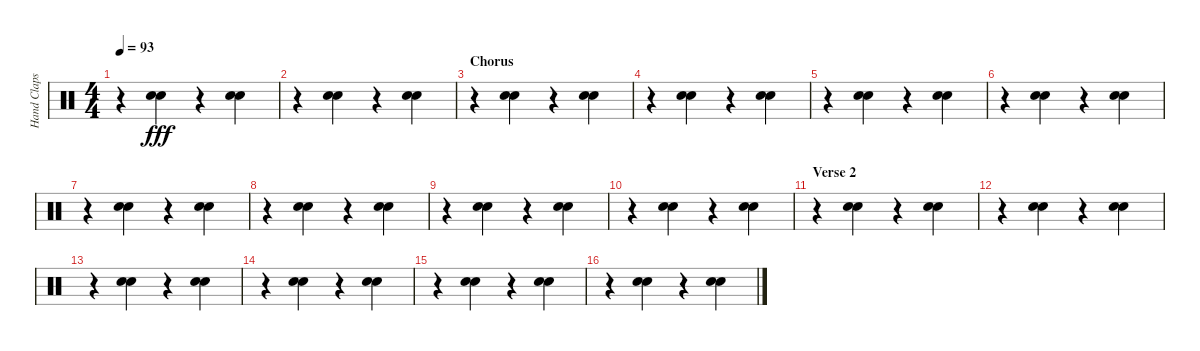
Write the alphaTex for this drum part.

\track ("Hand Claps" "Hand Claps") {instrument percussion}
\staff {score}
\articulation defaults
\ts (4 4)
\tempo 93
\clef neutral
\ks c
r.4{dy fff} ("Hand Clap (hit)" "Hand Clap (hit)").4 r.4 ("Hand Clap (hit)" "Hand Clap (hit)").4 |
r.4 ("Hand Clap (hit)" "Hand Clap (hit)").4 r.4 ("Hand Clap (hit)" "Hand Clap (hit)").4 |
\section ("" "Chorus")
r.4 ("Hand Clap (hit)" "Hand Clap (hit)").4 r.4 ("Hand Clap (hit)" "Hand Clap (hit)").4 |
r.4 ("Hand Clap (hit)" "Hand Clap (hit)").4 r.4 ("Hand Clap (hit)" "Hand Clap (hit)").4 |
r.4 ("Hand Clap (hit)" "Hand Clap (hit)").4 r.4 ("Hand Clap (hit)" "Hand Clap (hit)").4 |
r.4 ("Hand Clap (hit)" "Hand Clap (hit)").4 r.4 ("Hand Clap (hit)" "Hand Clap (hit)").4 |
r.4 ("Hand Clap (hit)" "Hand Clap (hit)").4 r.4 ("Hand Clap (hit)" "Hand Clap (hit)").4 |
r.4 ("Hand Clap (hit)" "Hand Clap (hit)").4 r.4 ("Hand Clap (hit)" "Hand Clap (hit)").4 |
r.4 ("Hand Clap (hit)" "Hand Clap (hit)").4 r.4 ("Hand Clap (hit)" "Hand Clap (hit)").4 |
r.4 ("Hand Clap (hit)" "Hand Clap (hit)").4 r.4 ("Hand Clap (hit)" "Hand Clap (hit)").4 |
\section ("" "Verse 2")
r.4 ("Hand Clap (hit)" "Hand Clap (hit)").4 r.4 ("Hand Clap (hit)" "Hand Clap (hit)").4 |
r.4 ("Hand Clap (hit)" "Hand Clap (hit)").4 r.4 ("Hand Clap (hit)" "Hand Clap (hit)").4 |
r.4 ("Hand Clap (hit)" "Hand Clap (hit)").4 r.4 ("Hand Clap (hit)" "Hand Clap (hit)").4 |
r.4 ("Hand Clap (hit)" "Hand Clap (hit)").4 r.4 ("Hand Clap (hit)" "Hand Clap (hit)").4 |
r.4 ("Hand Clap (hit)" "Hand Clap (hit)").4 r.4 ("Hand Clap (hit)" "Hand Clap (hit)").4 |
r.4 ("Hand Clap (hit)" "Hand Clap (hit)").4 r.4 ("Hand Clap (hit)" "Hand Clap (hit)").4
